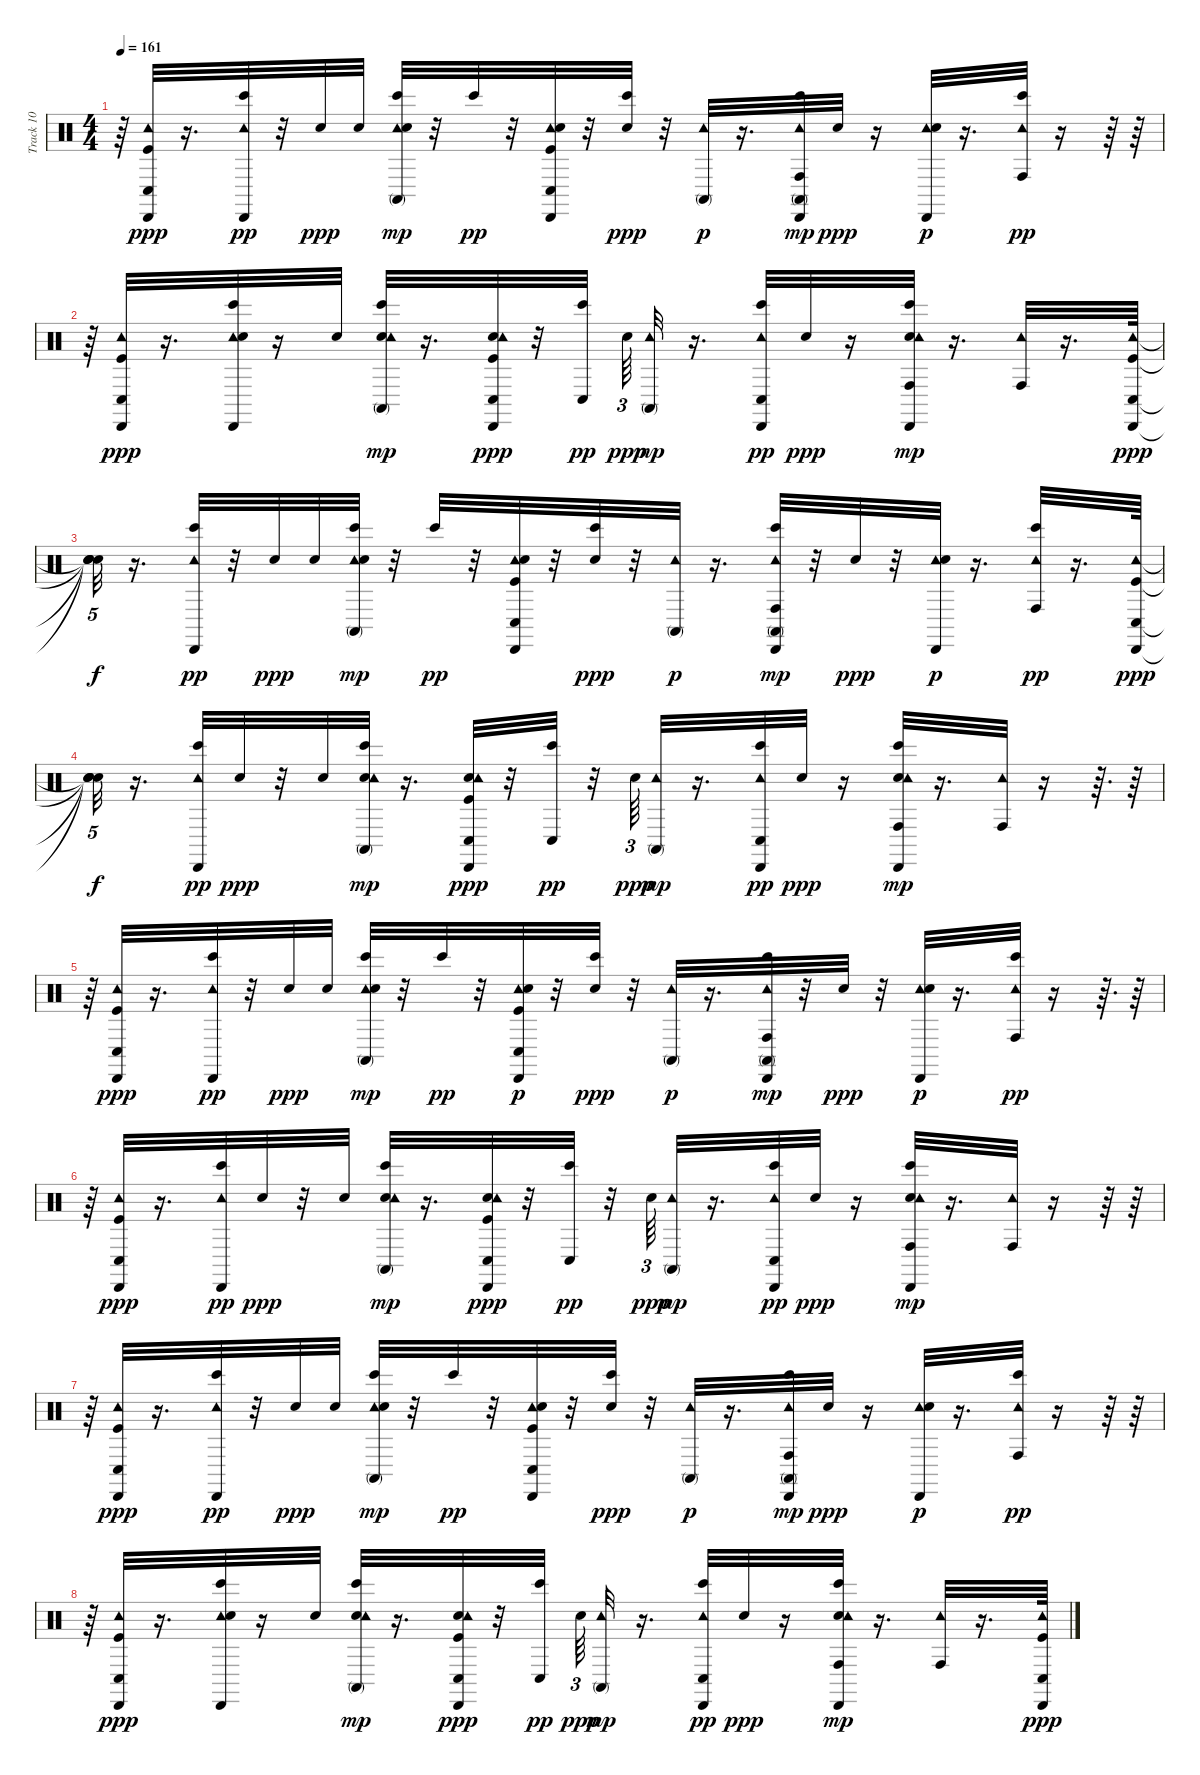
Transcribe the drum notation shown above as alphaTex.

\track ("Track 10" "Track 10") {instrument percussion}
\staff {score}
\articulation defaults
\ts (4 4)
\tempo 161
\clef neutral
\ks c
r.64{dy mp} ("Kick (hit)" "Tambourine (hit)" "Cabasa (hit)" "Conga low (hit)").32{dy ppp} r.16{d} ("Tambourine (hit)" "Cabasa (hit)" "Bongo High (hit)").32{dy pp} r.32 "Electric Snare (hit)".32{dy ppp} "Electric Snare (hit)".32 ("Tambourine (hit)" "Bongo High (hit)" "Conga high (mute)" "Electric Snare (hit)").32{dy mp} r.32 "Bongo High (hit)".32{dy pp} r.32 ("Tambourine (hit)" "Conga low (hit)" "Cabasa (hit)" "Kick (hit)" "Electric Snare (hit)").32 r.32 ("Bongo High (hit)" "Electric Snare (hit)").32{dy ppp} r.32 ("Tambourine (hit)" "Conga high (mute)").32{dy p} r.16{d} ("Tambourine (hit)" "Cabasa (hit)" "Bongo High (hit)" "Conga high (mute)" "Conga high (hit)").32{dy mp} "Electric Snare (hit)".32{dy ppp} r.16 ("Tambourine (hit)" "Cabasa (hit)" "Electric Snare (hit)").32{dy p} r.16{d} ("Tambourine (hit)" "Conga high (hit)" "Bongo High (hit)").32{dy pp} r.16 r.64 r.64 |
r.64 ("Kick (hit)" "Tambourine (hit)" "Cabasa (hit)" "Conga low (hit)").32{dy ppp} r.16{d} ("Tambourine (hit)" "Cabasa (hit)" "Bongo High (hit)" "Electric Snare (hit)").32 r.16 "Electric Snare (hit)".32 ("Electric Snare (hit)" "Tambourine (hit)" "Bongo High (hit)" "Conga high (mute)").32{dy mp} r.16{d} ("Kick (hit)" "Electric Snare (hit)" "Tambourine (hit)" "Cabasa (hit)" "Conga low (hit)").32{dy ppp} r.32 ("Bongo High (hit)" "Conga low (hit)").32{dy pp beam splitsecondary} "Electric Snare (hit)".64{tu (3 2) dy ppp} ("Tambourine (hit)" "Conga high (mute)").32{dy mp} r.16{d} ("Bongo High (hit)" "Tambourine (hit)" "Cabasa (hit)" "Conga low (hit)").32{dy pp} "Electric Snare (hit)".32{dy ppp} r.16 ("Electric Snare (hit)" "Bongo High (hit)" "Tambourine (hit)" "Cabasa (hit)" "Conga high (hit)").32{dy mp} r.16{d} ("Tambourine (hit)" "Conga high (hit)").32 r.16{d} ("Kick (hit)" "Tambourine (hit)" "Cabasa (hit)" "Conga low (hit)").64{dy ppp} |
("Snare (hit)"{t} "Snare (hit)"{t} "Snare (hit)"{t} "Snare (hit)"{t}).32{tu (5 4) dy f} r.16{d} ("Tambourine (hit)" "Cabasa (hit)" "Bongo High (hit)").32{dy pp} r.32 "Electric Snare (hit)".32{dy ppp} "Electric Snare (hit)".32 ("Tambourine (hit)" "Bongo High (hit)" "Conga high (mute)" "Electric Snare (hit)").32{dy mp} r.32 "Bongo High (hit)".32{dy pp} r.32 ("Tambourine (hit)" "Conga low (hit)" "Cabasa (hit)" "Kick (hit)" "Electric Snare (hit)").32 r.32 ("Bongo High (hit)" "Electric Snare (hit)").32{dy ppp} r.32 ("Tambourine (hit)" "Conga high (mute)").32{dy p} r.16{d} ("Tambourine (hit)" "Cabasa (hit)" "Bongo High (hit)" "Conga high (mute)" "Conga high (hit)").32{dy mp} r.32 "Electric Snare (hit)".32{dy ppp} r.32 ("Tambourine (hit)" "Cabasa (hit)" "Electric Snare (hit)").32{dy p} r.16{d} ("Tambourine (hit)" "Conga high (hit)" "Bongo High (hit)").32{dy pp} r.16{d} ("Kick (hit)" "Tambourine (hit)" "Cabasa (hit)" "Conga low (hit)").64{dy ppp} |
("Snare (hit)"{t} "Snare (hit)"{t} "Snare (hit)"{t} "Snare (hit)"{t}).32{tu (5 4) dy f} r.16{d} ("Tambourine (hit)" "Cabasa (hit)" "Bongo High (hit)").32{dy pp} "Electric Snare (hit)".32{dy ppp} r.32 "Electric Snare (hit)".32 ("Electric Snare (hit)" "Tambourine (hit)" "Bongo High (hit)" "Conga high (mute)").32{dy mp} r.16{d} ("Kick (hit)" "Electric Snare (hit)" "Tambourine (hit)" "Cabasa (hit)" "Conga low (hit)").32{dy ppp} r.32 ("Bongo High (hit)" "Conga low (hit)").32{dy pp} r.32 "Electric Snare (hit)".64{tu (3 2) dy ppp} ("Tambourine (hit)" "Conga high (mute)").32{dy mp} r.16{d} ("Bongo High (hit)" "Tambourine (hit)" "Cabasa (hit)" "Conga low (hit)").32{dy pp} "Electric Snare (hit)".32{dy ppp} r.16 ("Electric Snare (hit)" "Bongo High (hit)" "Tambourine (hit)" "Cabasa (hit)" "Conga high (hit)").32{dy mp} r.16{d} ("Tambourine (hit)" "Conga high (hit)").32 r.16 r.64{d} r.64 |
r.64 ("Kick (hit)" "Tambourine (hit)" "Cabasa (hit)" "Conga low (hit)").32{dy ppp} r.16{d} ("Tambourine (hit)" "Cabasa (hit)" "Bongo High (hit)").32{dy pp} r.32 "Electric Snare (hit)".32{dy ppp} "Electric Snare (hit)".32 ("Tambourine (hit)" "Bongo High (hit)" "Conga high (mute)" "Electric Snare (hit)").32{dy mp} r.32 "Bongo High (hit)".32{dy pp} r.32 ("Tambourine (hit)" "Conga low (hit)" "Cabasa (hit)" "Electric Snare (hit)" "Kick (hit)").32{dy p} r.32 ("Bongo High (hit)" "Electric Snare (hit)").32{dy ppp} r.32 ("Tambourine (hit)" "Conga high (mute)").32{dy p} r.16{d} ("Tambourine (hit)" "Cabasa (hit)" "Bongo High (hit)" "Conga high (mute)" "Conga high (hit)").32{dy mp} r.32 "Electric Snare (hit)".32{dy ppp} r.32 ("Tambourine (hit)" "Cabasa (hit)" "Electric Snare (hit)").32{dy p} r.16{d} ("Tambourine (hit)" "Conga high (hit)" "Bongo High (hit)").32{dy pp} r.16 r.64{d} r.64 |
r.64 ("Kick (hit)" "Tambourine (hit)" "Cabasa (hit)" "Conga low (hit)").32{dy ppp} r.16{d} ("Tambourine (hit)" "Cabasa (hit)" "Bongo High (hit)").32{dy pp} "Electric Snare (hit)".32{dy ppp} r.32 "Electric Snare (hit)".32 ("Electric Snare (hit)" "Tambourine (hit)" "Bongo High (hit)" "Conga high (mute)").32{dy mp} r.16{d} ("Kick (hit)" "Electric Snare (hit)" "Tambourine (hit)" "Cabasa (hit)" "Conga low (hit)").32{dy ppp} r.32 ("Bongo High (hit)" "Conga low (hit)").32{dy pp} r.32 "Electric Snare (hit)".64{tu (3 2) dy ppp} ("Tambourine (hit)" "Conga high (mute)").32{dy mp} r.16{d} ("Bongo High (hit)" "Tambourine (hit)" "Cabasa (hit)" "Conga low (hit)").32{dy pp} "Electric Snare (hit)".32{dy ppp} r.16 ("Electric Snare (hit)" "Bongo High (hit)" "Tambourine (hit)" "Cabasa (hit)" "Conga high (hit)").32{dy mp} r.16{d} ("Tambourine (hit)" "Conga high (hit)").32 r.16 r.64 r.64 |
r.64 ("Kick (hit)" "Tambourine (hit)" "Cabasa (hit)" "Conga low (hit)").32{dy ppp} r.16{d} ("Tambourine (hit)" "Cabasa (hit)" "Bongo High (hit)").32{dy pp} r.32 "Electric Snare (hit)".32{dy ppp} "Electric Snare (hit)".32 ("Tambourine (hit)" "Bongo High (hit)" "Conga high (mute)" "Electric Snare (hit)").32{dy mp} r.32 "Bongo High (hit)".32{dy pp} r.32 ("Tambourine (hit)" "Conga low (hit)" "Cabasa (hit)" "Kick (hit)" "Electric Snare (hit)").32 r.32 ("Bongo High (hit)" "Electric Snare (hit)").32{dy ppp} r.32 ("Tambourine (hit)" "Conga high (mute)").32{dy p} r.16{d} ("Tambourine (hit)" "Cabasa (hit)" "Bongo High (hit)" "Conga high (mute)" "Conga high (hit)").32{dy mp} "Electric Snare (hit)".32{dy ppp} r.16 ("Tambourine (hit)" "Cabasa (hit)" "Electric Snare (hit)").32{dy p} r.16{d} ("Tambourine (hit)" "Conga high (hit)" "Bongo High (hit)").32{dy pp} r.16 r.64 r.64 |
r.64 ("Kick (hit)" "Tambourine (hit)" "Cabasa (hit)" "Conga low (hit)").32{dy ppp} r.16{d} ("Tambourine (hit)" "Cabasa (hit)" "Bongo High (hit)" "Electric Snare (hit)").32 r.16 "Electric Snare (hit)".32 ("Electric Snare (hit)" "Tambourine (hit)" "Bongo High (hit)" "Conga high (mute)").32{dy mp} r.16{d} ("Kick (hit)" "Electric Snare (hit)" "Tambourine (hit)" "Cabasa (hit)" "Conga low (hit)").32{dy ppp} r.32 ("Bongo High (hit)" "Conga low (hit)").32{dy pp beam splitsecondary} "Electric Snare (hit)".64{tu (3 2) dy ppp} ("Tambourine (hit)" "Conga high (mute)").32{dy mp} r.16{d} ("Bongo High (hit)" "Tambourine (hit)" "Cabasa (hit)" "Conga low (hit)").32{dy pp} "Electric Snare (hit)".32{dy ppp} r.16 ("Electric Snare (hit)" "Bongo High (hit)" "Tambourine (hit)" "Cabasa (hit)" "Conga high (hit)").32{dy mp} r.16{d} ("Tambourine (hit)" "Conga high (hit)").32 r.16{d} ("Kick (hit)" "Tambourine (hit)" "Cabasa (hit)" "Conga low (hit)").64{dy ppp}
